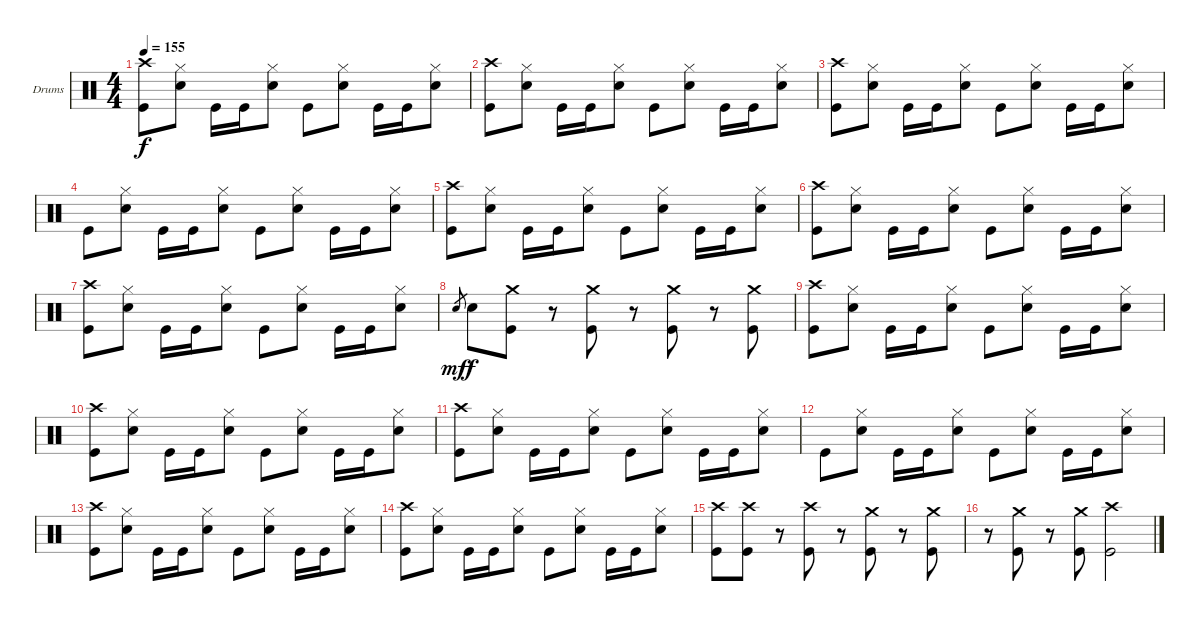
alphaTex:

\bracketExtendMode groupsimilarinstruments
\firstSystemTrackNameOrientation horizontal
\otherSystemsTrackNameOrientation horizontal
\track ("Drumkit" "Drums") {instrument percussion}
\staff {score}
\articulation defaults
\ts (4 4)
\tempo 155
\clef neutral
\ks c
("Crash high (hit)" "Kick (hit)").8{dy f} ("Hi-Hat (closed)" "Snare (hit) 2").8 "Kick (hit)".16 "Kick (hit)".16 ("Hi-Hat (closed)" "Snare (hit) 2").8 "Kick (hit)".8 ("Hi-Hat (closed)" "Snare (hit) 2").8 "Kick (hit)".16 "Kick (hit)".16 ("Hi-Hat (closed)" "Snare (hit) 2").8 |
("Crash high (hit)" "Kick (hit)").8 ("Hi-Hat (closed)" "Snare (hit) 2").8 "Kick (hit)".16 "Kick (hit)".16 ("Hi-Hat (closed)" "Snare (hit) 2").8 "Kick (hit)".8 ("Hi-Hat (closed)" "Snare (hit) 2").8 "Kick (hit)".16 "Kick (hit)".16 ("Hi-Hat (closed)" "Snare (hit) 2").8 |
("Crash high (hit)" "Kick (hit)").8 ("Hi-Hat (closed)" "Snare (hit) 2").8 "Kick (hit)".16 "Kick (hit)".16 ("Hi-Hat (closed)" "Snare (hit) 2").8 "Kick (hit)".8 ("Hi-Hat (closed)" "Snare (hit) 2").8 "Kick (hit)".16 "Kick (hit)".16 ("Hi-Hat (closed)" "Snare (hit) 2").8 |
"Kick (hit)".8 ("Hi-Hat (closed)" "Snare (hit) 2").8 "Kick (hit)".16 "Kick (hit)".16 ("Hi-Hat (closed)" "Snare (hit) 2").8 "Kick (hit)".8 ("Hi-Hat (closed)" "Snare (hit) 2").8 "Kick (hit)".16 "Kick (hit)".16 ("Hi-Hat (closed)" "Snare (hit) 2").8 |
("Crash high (hit)" "Kick (hit)").8 ("Hi-Hat (closed)" "Snare (hit) 2").8 "Kick (hit)".16 "Kick (hit)".16 ("Hi-Hat (closed)" "Snare (hit) 2").8 "Kick (hit)".8 ("Hi-Hat (closed)" "Snare (hit) 2").8 "Kick (hit)".16 "Kick (hit)".16 ("Hi-Hat (closed)" "Snare (hit) 2").8 |
("Crash high (hit)" "Kick (hit)").8 ("Hi-Hat (closed)" "Snare (hit) 2").8 "Kick (hit)".16 "Kick (hit)".16 ("Hi-Hat (closed)" "Snare (hit) 2").8 "Kick (hit)".8 ("Hi-Hat (closed)" "Snare (hit) 2").8 "Kick (hit)".16 "Kick (hit)".16 ("Hi-Hat (closed)" "Snare (hit) 2").8 |
("Crash high (hit)" "Kick (hit)").8 ("Hi-Hat (closed)" "Snare (hit) 2").8 "Kick (hit)".16 "Kick (hit)".16 ("Hi-Hat (closed)" "Snare (hit) 2").8 "Kick (hit)".8 ("Hi-Hat (closed)" "Snare (hit) 2").8 "Kick (hit)".16 "Kick (hit)".16 ("Hi-Hat (closed)" "Snare (hit) 2").8 |
"Snare (hit) 2".8{gr dy mf} "Snare (hit) 2".8{dy f} ("Crash medium (hit)" "Kick (hit)").8 r.8 ("Crash medium (hit)" "Kick (hit)").8 r.8 ("Crash medium (hit)" "Kick (hit)").8 r.8 ("Crash medium (hit)" "Kick (hit)").8 |
("Crash high (hit)" "Kick (hit)").8 ("Hi-Hat (closed)" "Snare (hit) 2").8 "Kick (hit)".16 "Kick (hit)".16 ("Hi-Hat (closed)" "Snare (hit) 2").8 "Kick (hit)".8 ("Hi-Hat (closed)" "Snare (hit) 2").8 "Kick (hit)".16 "Kick (hit)".16 ("Hi-Hat (closed)" "Snare (hit) 2").8 |
("Crash high (hit)" "Kick (hit)").8 ("Hi-Hat (closed)" "Snare (hit) 2").8 "Kick (hit)".16 "Kick (hit)".16 ("Hi-Hat (closed)" "Snare (hit) 2").8 "Kick (hit)".8 ("Hi-Hat (closed)" "Snare (hit) 2").8 "Kick (hit)".16 "Kick (hit)".16 ("Hi-Hat (closed)" "Snare (hit) 2").8 |
("Crash high (hit)" "Kick (hit)").8 ("Hi-Hat (closed)" "Snare (hit) 2").8 "Kick (hit)".16 "Kick (hit)".16 ("Hi-Hat (closed)" "Snare (hit) 2").8 "Kick (hit)".8 ("Hi-Hat (closed)" "Snare (hit) 2").8 "Kick (hit)".16 "Kick (hit)".16 ("Hi-Hat (closed)" "Snare (hit) 2").8 |
"Kick (hit)".8 ("Hi-Hat (closed)" "Snare (hit) 2").8 "Kick (hit)".16 "Kick (hit)".16 ("Hi-Hat (closed)" "Snare (hit) 2").8 "Kick (hit)".8 ("Hi-Hat (closed)" "Snare (hit) 2").8 "Kick (hit)".16 "Kick (hit)".16 ("Hi-Hat (closed)" "Snare (hit) 2").8 |
("Crash high (hit)" "Kick (hit)").8 ("Hi-Hat (closed)" "Snare (hit) 2").8 "Kick (hit)".16 "Kick (hit)".16 ("Hi-Hat (closed)" "Snare (hit) 2").8 "Kick (hit)".8 ("Hi-Hat (closed)" "Snare (hit) 2").8 "Kick (hit)".16 "Kick (hit)".16 ("Hi-Hat (closed)" "Snare (hit) 2").8 |
("Crash high (hit)" "Kick (hit)").8 ("Hi-Hat (closed)" "Snare (hit) 2").8 "Kick (hit)".16 "Kick (hit)".16 ("Hi-Hat (closed)" "Snare (hit) 2").8 "Kick (hit)".8 ("Hi-Hat (closed)" "Snare (hit) 2").8 "Kick (hit)".16 "Kick (hit)".16 ("Hi-Hat (closed)" "Snare (hit) 2").8 |
("Crash high (hit)" "Kick (hit)").8 ("Crash high (hit)" "Kick (hit)").8 r.8 ("Crash high (hit)" "Kick (hit)").8 r.8 ("Crash medium (hit)" "Kick (hit)").8 r.8 ("Crash medium (hit)" "Kick (hit)").8 |
r.8 ("Crash medium (hit)" "Kick (hit)").8 r.8 ("Crash medium (hit)" "Kick (hit)").8 ("Crash high (hit)" "Kick (hit)").2
